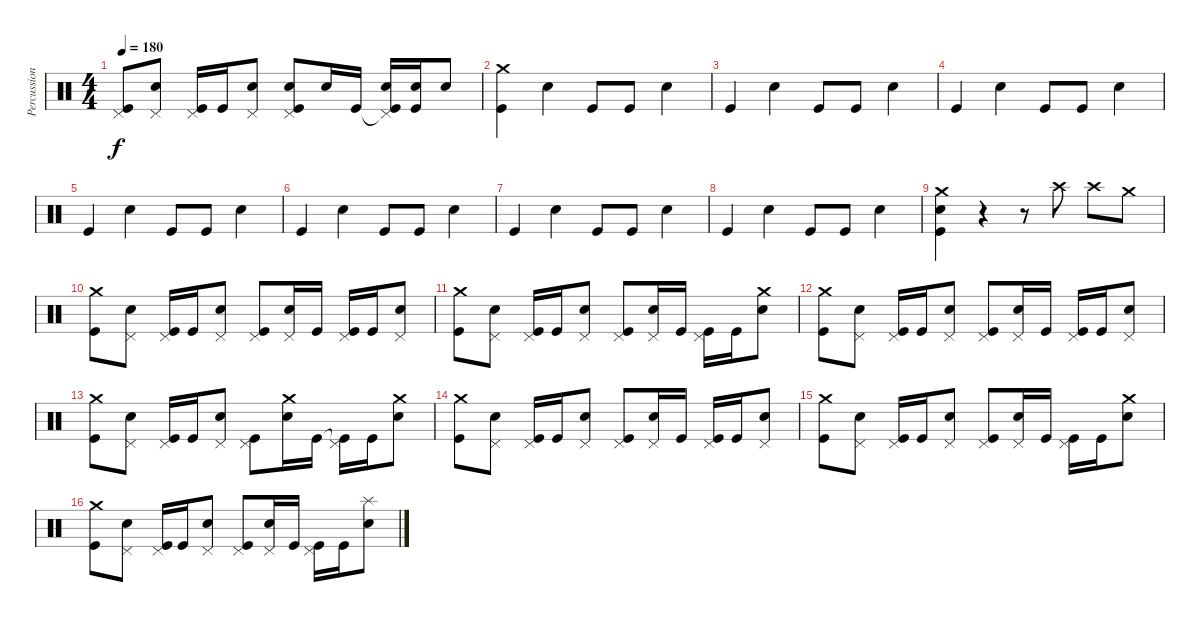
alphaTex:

\track ("Percussion" "Percussion") {instrument percussion}
\staff {score}
\articulation defaults
\ts (4 4)
\tempo 180
\clef neutral
\ks c
("Pedal Hi-Hat (hit)" "Kick (hit)").8{dy f} ("Pedal Hi-Hat (hit)" "Snare (hit) 2").8 ("Pedal Hi-Hat (hit)" "Kick (hit)").16 "Kick (hit)".16 ("Pedal Hi-Hat (hit)" "Snare (hit) 2").8 ("Pedal Hi-Hat (hit)" "Snare (hit) 2" "Kick (hit)").8 "Snare (hit) 2".16 "Kick (hit)".16 ("Pedal Hi-Hat (hit)"{t} "Snare (hit) 2" "Kick (hit)").16 ("Snare (hit) 2" "Kick (hit)").16 "Snare (hit) 2".8 |
("Crash medium (hit)" "Kick (hit)").4 "Snare (hit) 2".4 "Kick (hit)".8 "Kick (hit)".8 "Snare (hit) 2".4 |
"Kick (hit)".4 "Snare (hit) 2".4 "Kick (hit)".8 "Kick (hit)".8 "Snare (hit) 2".4 |
"Kick (hit)".4 "Snare (hit) 2".4 "Kick (hit)".8 "Kick (hit)".8 "Snare (hit) 2".4 |
"Kick (hit)".4 "Snare (hit) 2".4 "Kick (hit)".8 "Kick (hit)".8 "Snare (hit) 2".4 |
"Kick (hit)".4 "Snare (hit) 2".4 "Kick (hit)".8 "Kick (hit)".8 "Snare (hit) 2".4 |
"Kick (hit)".4 "Snare (hit) 2".4 "Kick (hit)".8 "Kick (hit)".8 "Snare (hit) 2".4 |
"Kick (hit)".4 "Snare (hit) 2".4 "Kick (hit)".8 "Kick (hit)".8 "Snare (hit) 2".4 |
("Snare (hit) 2" "Crash medium (hit)" "Kick (hit)").4 r.4 r.8 "Crash high (hit)".8 "Crash high (hit)".8 "Crash medium (hit)".8 |
("Crash medium (hit)" "Kick (hit)").8 ("Pedal Hi-Hat (hit)" "Snare (hit) 2").8 ("Pedal Hi-Hat (hit)" "Kick (hit)").16 "Kick (hit)".16 ("Pedal Hi-Hat (hit)" "Snare (hit) 2").8 ("Pedal Hi-Hat (hit)" "Kick (hit)").8 ("Pedal Hi-Hat (hit)" "Snare (hit) 2").16 "Kick (hit)".16 ("Pedal Hi-Hat (hit)" "Kick (hit)").16 "Kick (hit)".16 ("Pedal Hi-Hat (hit)" "Snare (hit) 2").8 |
("Crash medium (hit)" "Kick (hit)").8 ("Pedal Hi-Hat (hit)" "Snare (hit) 2").8 ("Pedal Hi-Hat (hit)" "Kick (hit)").16 "Kick (hit)".16 ("Pedal Hi-Hat (hit)" "Snare (hit) 2").8 ("Pedal Hi-Hat (hit)" "Kick (hit)").8 ("Pedal Hi-Hat (hit)" "Snare (hit) 2").16 "Kick (hit)".16 ("Pedal Hi-Hat (hit)" "Kick (hit)").16 "Kick (hit)".16 ("Crash medium (hit)" "Snare (hit) 2").8 |
("Crash medium (hit)" "Kick (hit)").8 ("Pedal Hi-Hat (hit)" "Snare (hit) 2").8 ("Pedal Hi-Hat (hit)" "Kick (hit)").16 "Kick (hit)".16 ("Pedal Hi-Hat (hit)" "Snare (hit) 2").8 ("Pedal Hi-Hat (hit)" "Kick (hit)").8 ("Pedal Hi-Hat (hit)" "Snare (hit) 2").16 "Kick (hit)".16 ("Pedal Hi-Hat (hit)" "Kick (hit)").16 "Kick (hit)".16 ("Pedal Hi-Hat (hit)" "Snare (hit) 2").8 |
("Crash medium (hit)" "Kick (hit)").8 ("Pedal Hi-Hat (hit)" "Snare (hit) 2").8 ("Pedal Hi-Hat (hit)" "Kick (hit)").16 "Kick (hit)".16 ("Pedal Hi-Hat (hit)" "Snare (hit) 2").8 ("Pedal Hi-Hat (hit)" "Kick (hit)").8 ("Crash medium (hit)" "Snare (hit) 2").16 "Kick (hit)".16 ("Pedal Hi-Hat (hit)"{t} "Kick (hit)").16 "Kick (hit)".16 ("Crash medium (hit)" "Snare (hit) 2").8 |
("Crash medium (hit)" "Kick (hit)").8 ("Pedal Hi-Hat (hit)" "Snare (hit) 2").8 ("Pedal Hi-Hat (hit)" "Kick (hit)").16 "Kick (hit)".16 ("Pedal Hi-Hat (hit)" "Snare (hit) 2").8 ("Pedal Hi-Hat (hit)" "Kick (hit)").8 ("Pedal Hi-Hat (hit)" "Snare (hit) 2").16 "Kick (hit)".16 ("Pedal Hi-Hat (hit)" "Kick (hit)").16 "Kick (hit)".16 ("Pedal Hi-Hat (hit)" "Snare (hit) 2").8 |
("Crash medium (hit)" "Kick (hit)").8 ("Pedal Hi-Hat (hit)" "Snare (hit) 2").8 ("Pedal Hi-Hat (hit)" "Kick (hit)").16 "Kick (hit)".16 ("Pedal Hi-Hat (hit)" "Snare (hit) 2").8 ("Pedal Hi-Hat (hit)" "Kick (hit)").8 ("Pedal Hi-Hat (hit)" "Snare (hit) 2").16 "Kick (hit)".16 ("Pedal Hi-Hat (hit)" "Kick (hit)").16 "Kick (hit)".16 ("Crash medium (hit)" "Snare (hit) 2").8 |
("Crash medium (hit)" "Kick (hit)").8 ("Pedal Hi-Hat (hit)" "Snare (hit) 2").8 ("Pedal Hi-Hat (hit)" "Kick (hit)").16 "Kick (hit)".16 ("Pedal Hi-Hat (hit)" "Snare (hit) 2").8 ("Pedal Hi-Hat (hit)" "Kick (hit)").8 ("Pedal Hi-Hat (hit)" "Snare (hit) 2").16 "Kick (hit)".16 ("Pedal Hi-Hat (hit)" "Kick (hit)").16 "Kick (hit)".16 ("Splash (hit)" "Snare (hit) 2").8
